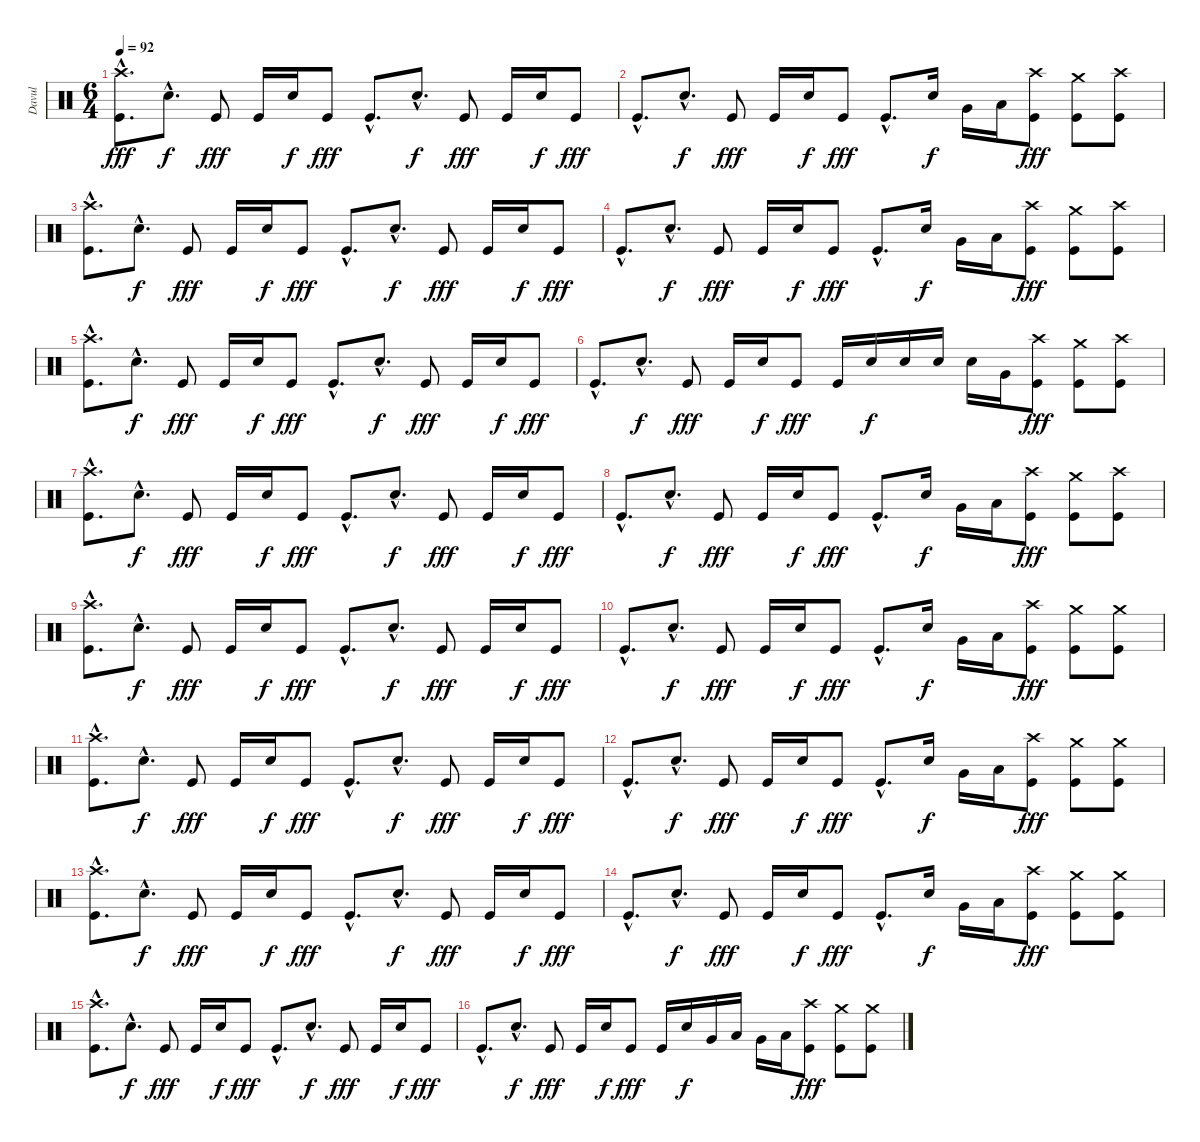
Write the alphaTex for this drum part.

\track ("Davul" "Davul") {instrument percussion}
\staff {score}
\articulation defaults
\ts (6 4)
\tempo 92
\clef neutral
\ks c
("Crash high (hit)"{hac} "Kick (hit)"{hac}).8{d dy fff} "Snare (hit) 2"{hac}.8{d dy f} "Kick (hit)".8{dy fff} "Kick (hit)".16 "Snare (hit) 2".16{dy f} "Kick (hit)".8{dy fff} "Kick (hit)"{hac}.8{d} "Snare (hit) 2"{hac}.8{d dy f} "Kick (hit)".8{dy fff} "Kick (hit)".16 "Snare (hit) 2".16{dy f} "Kick (hit)".8{dy fff} |
"Kick (hit)"{hac}.8{d} "Snare (hit) 2"{hac}.8{d dy f} "Kick (hit)".8{dy fff} "Kick (hit)".16 "Snare (hit) 2".16{dy f} "Kick (hit)".8{dy fff} "Kick (hit)"{hac}.8{d} "Snare (hit) 2".16{dy f} "Very Low Tom (hit)".16 "Low Floor Tom (hit)".16 ("Crash high (hit)" "Kick (hit)").8{dy fff} ("Crash medium (hit)" "Kick (hit)").8 ("Crash high (hit)" "Kick (hit)").8 |
("Crash high (hit)"{hac} "Kick (hit)"{hac}).8{d} "Snare (hit) 2"{hac}.8{d dy f} "Kick (hit)".8{dy fff} "Kick (hit)".16 "Snare (hit) 2".16{dy f} "Kick (hit)".8{dy fff} "Kick (hit)"{hac}.8{d} "Snare (hit) 2"{hac}.8{d dy f} "Kick (hit)".8{dy fff} "Kick (hit)".16 "Snare (hit) 2".16{dy f} "Kick (hit)".8{dy fff} |
"Kick (hit)"{hac}.8{d} "Snare (hit) 2"{hac}.8{d dy f} "Kick (hit)".8{dy fff} "Kick (hit)".16 "Snare (hit) 2".16{dy f} "Kick (hit)".8{dy fff} "Kick (hit)"{hac}.8{d} "Snare (hit) 2".16{dy f} "Very Low Tom (hit)".16 "Low Floor Tom (hit)".16 ("Crash high (hit)" "Kick (hit)").8{dy fff} ("Crash medium (hit)" "Kick (hit)").8 ("Crash high (hit)" "Kick (hit)").8 |
("Crash high (hit)"{hac} "Kick (hit)"{hac}).8{d} "Snare (hit) 2"{hac}.8{d dy f} "Kick (hit)".8{dy fff} "Kick (hit)".16 "Snare (hit) 2".16{dy f} "Kick (hit)".8{dy fff} "Kick (hit)"{hac}.8{d} "Snare (hit) 2"{hac}.8{d dy f} "Kick (hit)".8{dy fff} "Kick (hit)".16 "Snare (hit) 2".16{dy f} "Kick (hit)".8{dy fff} |
"Kick (hit)"{hac}.8{d} "Snare (hit) 2"{hac}.8{d dy f} "Kick (hit)".8{dy fff} "Kick (hit)".16 "Snare (hit) 2".16{dy f} "Kick (hit)".8{dy fff} "Kick (hit)".16 "Snare (hit) 2".16{dy f} "Snare (hit) 2".16 "Snare (hit) 2".16 "Snare (hit) 2".16 "Very Low Tom (hit)".16 ("Crash high (hit)" "Kick (hit)").8{dy fff} ("Crash medium (hit)" "Kick (hit)").8 ("Crash high (hit)" "Kick (hit)").8 |
("Crash high (hit)"{hac} "Kick (hit)"{hac}).8{d} "Snare (hit) 2"{hac}.8{d dy f} "Kick (hit)".8{dy fff} "Kick (hit)".16 "Snare (hit) 2".16{dy f} "Kick (hit)".8{dy fff} "Kick (hit)"{hac}.8{d} "Snare (hit) 2"{hac}.8{d dy f} "Kick (hit)".8{dy fff} "Kick (hit)".16 "Snare (hit) 2".16{dy f} "Kick (hit)".8{dy fff} |
"Kick (hit)"{hac}.8{d} "Snare (hit) 2"{hac}.8{d dy f} "Kick (hit)".8{dy fff} "Kick (hit)".16 "Snare (hit) 2".16{dy f} "Kick (hit)".8{dy fff} "Kick (hit)"{hac}.8{d} "Snare (hit) 2".16{dy f} "Very Low Tom (hit)".16 "Low Floor Tom (hit)".16 ("Crash high (hit)" "Kick (hit)").8{dy fff} ("Crash medium (hit)" "Kick (hit)").8 ("Crash high (hit)" "Kick (hit)").8 |
("Crash high (hit)"{hac} "Kick (hit)"{hac}).8{d} "Snare (hit) 2"{hac}.8{d dy f} "Kick (hit)".8{dy fff} "Kick (hit)".16 "Snare (hit) 2".16{dy f} "Kick (hit)".8{dy fff} "Kick (hit)"{hac}.8{d} "Snare (hit) 2"{hac}.8{d dy f} "Kick (hit)".8{dy fff} "Kick (hit)".16 "Snare (hit) 2".16{dy f} "Kick (hit)".8{dy fff} |
"Kick (hit)"{hac}.8{d} "Snare (hit) 2"{hac}.8{d dy f} "Kick (hit)".8{dy fff} "Kick (hit)".16 "Snare (hit) 2".16{dy f} "Kick (hit)".8{dy fff} "Kick (hit)"{hac}.8{d} "Snare (hit) 2".16{dy f} "Very Low Tom (hit)".16 "Low Floor Tom (hit)".16 ("Crash high (hit)" "Kick (hit)").8{dy fff} ("Crash medium (hit)" "Kick (hit)").8 ("Crash medium (hit)" "Kick (hit)").8 |
("Crash high (hit)"{hac} "Kick (hit)"{hac}).8{d} "Snare (hit) 2"{hac}.8{d dy f} "Kick (hit)".8{dy fff} "Kick (hit)".16 "Snare (hit) 2".16{dy f} "Kick (hit)".8{dy fff} "Kick (hit)"{hac}.8{d} "Snare (hit) 2"{hac}.8{d dy f} "Kick (hit)".8{dy fff} "Kick (hit)".16 "Snare (hit) 2".16{dy f} "Kick (hit)".8{dy fff} |
"Kick (hit)"{hac}.8{d} "Snare (hit) 2"{hac}.8{d dy f} "Kick (hit)".8{dy fff} "Kick (hit)".16 "Snare (hit) 2".16{dy f} "Kick (hit)".8{dy fff} "Kick (hit)"{hac}.8{d} "Snare (hit) 2".16{dy f} "Very Low Tom (hit)".16 "Low Floor Tom (hit)".16 ("Crash high (hit)" "Kick (hit)").8{dy fff} ("Crash medium (hit)" "Kick (hit)").8 ("Crash medium (hit)" "Kick (hit)").8 |
("Crash high (hit)"{hac} "Kick (hit)"{hac}).8{d} "Snare (hit) 2"{hac}.8{d dy f} "Kick (hit)".8{dy fff} "Kick (hit)".16 "Snare (hit) 2".16{dy f} "Kick (hit)".8{dy fff} "Kick (hit)"{hac}.8{d} "Snare (hit) 2"{hac}.8{d dy f} "Kick (hit)".8{dy fff} "Kick (hit)".16 "Snare (hit) 2".16{dy f} "Kick (hit)".8{dy fff} |
"Kick (hit)"{hac}.8{d} "Snare (hit) 2"{hac}.8{d dy f} "Kick (hit)".8{dy fff} "Kick (hit)".16 "Snare (hit) 2".16{dy f} "Kick (hit)".8{dy fff} "Kick (hit)"{hac}.8{d} "Snare (hit) 2".16{dy f} "Very Low Tom (hit)".16 "Low Floor Tom (hit)".16 ("Crash high (hit)" "Kick (hit)").8{dy fff} ("Crash medium (hit)" "Kick (hit)").8 ("Crash medium (hit)" "Kick (hit)").8 |
("Crash high (hit)"{hac} "Kick (hit)"{hac}).8{d} "Snare (hit) 2"{hac}.8{d dy f} "Kick (hit)".8{dy fff} "Kick (hit)".16 "Snare (hit) 2".16{dy f} "Kick (hit)".8{dy fff} "Kick (hit)"{hac}.8{d} "Snare (hit) 2"{hac}.8{d dy f} "Kick (hit)".8{dy fff} "Kick (hit)".16 "Snare (hit) 2".16{dy f} "Kick (hit)".8{dy fff} |
"Kick (hit)"{hac}.8{d} "Snare (hit) 2"{hac}.8{d dy f} "Kick (hit)".8{dy fff} "Kick (hit)".16 "Snare (hit) 2".16{dy f} "Kick (hit)".8{dy fff} "Kick (hit)".16 "Snare (hit) 2".16{dy f} "Very Low Tom (hit)".16 "Low Tom (hit)".16 "Very Low Tom (hit)".16 "Low Floor Tom (hit)".16 ("Crash high (hit)" "Kick (hit)").8{dy fff} ("Crash medium (hit)" "Kick (hit)").8 ("Crash medium (hit)" "Kick (hit)").8
